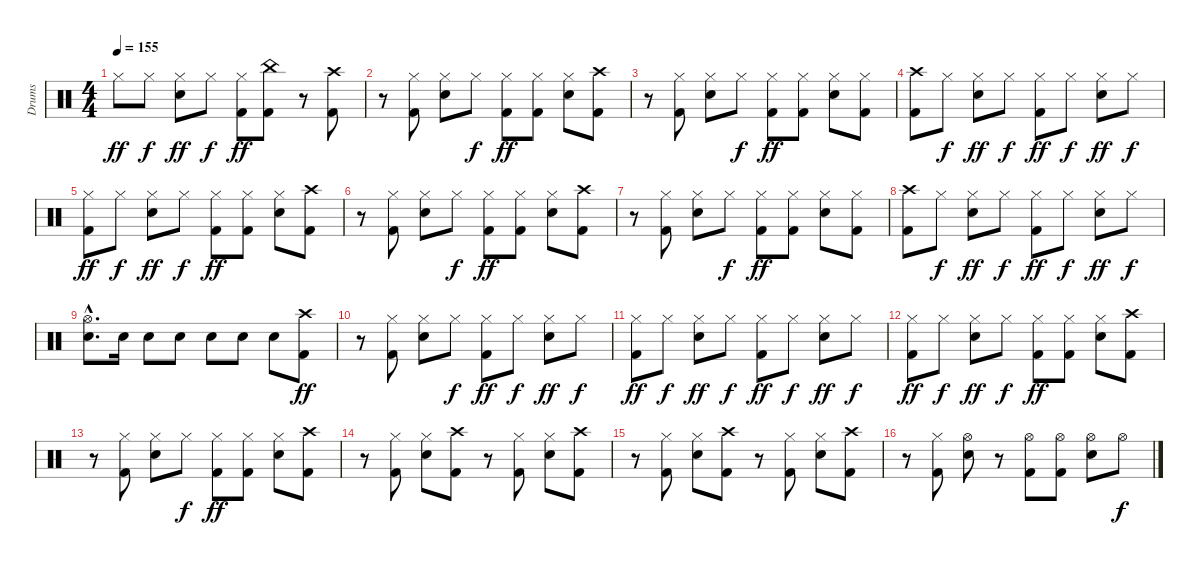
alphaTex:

\track ("Drums" "Drums") {instrument percussion}
\staff {score}
\articulation defaults
\ts (4 4)
\tempo 155
\clef neutral
\ks c "Hi-Hat (closed)".8{dy ff} "Hi-Hat (closed)".8{dy f}
("Hi-Hat (closed)" "Snare (hit) 2").8{dy ff} "Hi-Hat (closed)".8{dy f} ("Hi-Hat (closed)" "Kick (hit) 2").8{dy ff} ("China (hit)" "Kick (hit) 2").8 r.8 ("Crash high (hit)" "Kick (hit) 2").8 |
r.8 ("Hi-Hat (closed)" "Kick (hit) 2").8 ("Hi-Hat (closed)" "Snare (hit) 2").8 "Hi-Hat (closed)".8{dy f} ("Hi-Hat (closed)" "Kick (hit) 2").8{dy ff} ("Hi-Hat (closed)" "Kick (hit) 2").8 ("Hi-Hat (closed)" "Snare (hit) 2").8 ("Crash high (hit)" "Kick (hit) 2").8 |
r.8 ("Hi-Hat (closed)" "Kick (hit) 2").8 ("Hi-Hat (closed)" "Snare (hit) 2").8 "Hi-Hat (closed)".8{dy f} ("Hi-Hat (closed)" "Kick (hit) 2").8{dy ff} ("Hi-Hat (closed)" "Kick (hit) 2").8 ("Hi-Hat (closed)" "Snare (hit) 2").8 ("Hi-Hat (closed)" "Kick (hit) 2").8 |
("Crash high (hit)" "Kick (hit) 2").8 "Hi-Hat (closed)".8{dy f} ("Hi-Hat (closed)" "Snare (hit) 2").8{dy ff} "Hi-Hat (closed)".8{dy f} ("Hi-Hat (closed)" "Kick (hit) 2").8{dy ff} "Hi-Hat (closed)".8{dy f} ("Hi-Hat (closed)" "Snare (hit) 2").8{dy ff} "Hi-Hat (closed)".8{dy f} |
("Hi-Hat (closed)" "Kick (hit) 2").8{dy ff} "Hi-Hat (closed)".8{dy f} ("Hi-Hat (closed)" "Snare (hit) 2").8{dy ff} "Hi-Hat (closed)".8{dy f} ("Hi-Hat (closed)" "Kick (hit) 2").8{dy ff} ("Hi-Hat (closed)" "Kick (hit) 2").8 ("Hi-Hat (closed)" "Snare (hit) 2").8 ("Crash high (hit)" "Kick (hit) 2").8 |
r.8 ("Hi-Hat (closed)" "Kick (hit) 2").8 ("Hi-Hat (closed)" "Snare (hit) 2").8 "Hi-Hat (closed)".8{dy f} ("Hi-Hat (closed)" "Kick (hit) 2").8{dy ff} ("Hi-Hat (closed)" "Kick (hit) 2").8 ("Hi-Hat (closed)" "Snare (hit) 2").8 ("Crash high (hit)" "Kick (hit) 2").8 |
r.8 ("Hi-Hat (closed)" "Kick (hit) 2").8 ("Hi-Hat (closed)" "Snare (hit) 2").8 "Hi-Hat (closed)".8{dy f} ("Hi-Hat (closed)" "Kick (hit) 2").8{dy ff} ("Hi-Hat (closed)" "Kick (hit) 2").8 ("Hi-Hat (closed)" "Snare (hit) 2").8 ("Hi-Hat (closed)" "Kick (hit) 2").8 |
("Crash high (hit)" "Kick (hit) 2").8 "Hi-Hat (closed)".8{dy f} ("Hi-Hat (closed)" "Snare (hit) 2").8{dy ff} "Hi-Hat (closed)".8{dy f} ("Hi-Hat (closed)" "Kick (hit) 2").8{dy ff} "Hi-Hat (closed)".8{dy f} ("Hi-Hat (closed)" "Snare (hit) 2").8{dy ff} "Hi-Hat (closed)".8{dy f} |
("Hi-Hat (open)"{hac} "Snare (hit) 2"{hac}).8{d} "Snare (hit) 2".16 "Snare (hit) 2".8 "Snare (hit) 2".8 "Snare (hit) 2".8 "Snare (hit) 2".8 "Snare (hit) 2".8 ("Crash high (hit)" "Kick (hit) 2").8{dy ff} |
r.8 ("Hi-Hat (closed)" "Kick (hit) 2").8 ("Hi-Hat (closed)" "Snare (hit) 2").8 "Hi-Hat (closed)".8{dy f} ("Hi-Hat (closed)" "Kick (hit) 2").8{dy ff} "Hi-Hat (closed)".8{dy f} ("Hi-Hat (closed)" "Snare (hit) 2").8{dy ff} "Hi-Hat (closed)".8{dy f} |
("Hi-Hat (closed)" "Kick (hit) 2").8{dy ff} "Hi-Hat (closed)".8{dy f} ("Hi-Hat (closed)" "Snare (hit) 2").8{dy ff} "Hi-Hat (closed)".8{dy f} ("Hi-Hat (closed)" "Kick (hit) 2").8{dy ff} "Hi-Hat (closed)".8{dy f} ("Hi-Hat (closed)" "Snare (hit) 2").8{dy ff} "Hi-Hat (closed)".8{dy f} |
("Hi-Hat (closed)" "Kick (hit) 2").8{dy ff} "Hi-Hat (closed)".8{dy f} ("Hi-Hat (closed)" "Snare (hit) 2").8{dy ff} "Hi-Hat (closed)".8{dy f} ("Hi-Hat (closed)" "Kick (hit) 2").8{dy ff} ("Hi-Hat (closed)" "Kick (hit) 2").8 ("Hi-Hat (closed)" "Snare (hit) 2").8 ("Crash high (hit)" "Kick (hit) 2").8 |
r.8 ("Hi-Hat (closed)" "Kick (hit) 2").8 ("Hi-Hat (closed)" "Snare (hit) 2").8 "Hi-Hat (closed)".8{dy f} ("Hi-Hat (closed)" "Kick (hit) 2").8{dy ff} ("Hi-Hat (closed)" "Kick (hit) 2").8 ("Hi-Hat (closed)" "Snare (hit) 2").8 ("Crash high (hit)" "Kick (hit) 2").8 |
r.8 ("Hi-Hat (closed)" "Kick (hit) 2").8 ("Hi-Hat (closed)" "Snare (hit) 2").8 ("Crash high (hit)" "Kick (hit) 2").8 r.8 ("Hi-Hat (closed)" "Kick (hit) 2").8 ("Hi-Hat (closed)" "Snare (hit) 2").8 ("Crash high (hit)" "Kick (hit) 2").8 |
r.8 ("Hi-Hat (closed)" "Kick (hit) 2").8 ("Hi-Hat (closed)" "Snare (hit) 2").8 ("Crash high (hit)" "Kick (hit) 2").8 r.8 ("Hi-Hat (closed)" "Kick (hit) 2").8 ("Hi-Hat (closed)" "Snare (hit) 2").8 ("Crash high (hit)" "Kick (hit) 2").8 |
r.8 ("Hi-Hat (closed)" "Kick (hit) 2").8 ("Hi-Hat (open)" "Snare (hit) 2").8 r.8 ("Hi-Hat (open)" "Kick (hit) 2").8 ("Hi-Hat (open)" "Kick (hit) 2").8 ("Hi-Hat (open)" "Snare (hit) 2").8 "Hi-Hat (open)".8{dy f}
